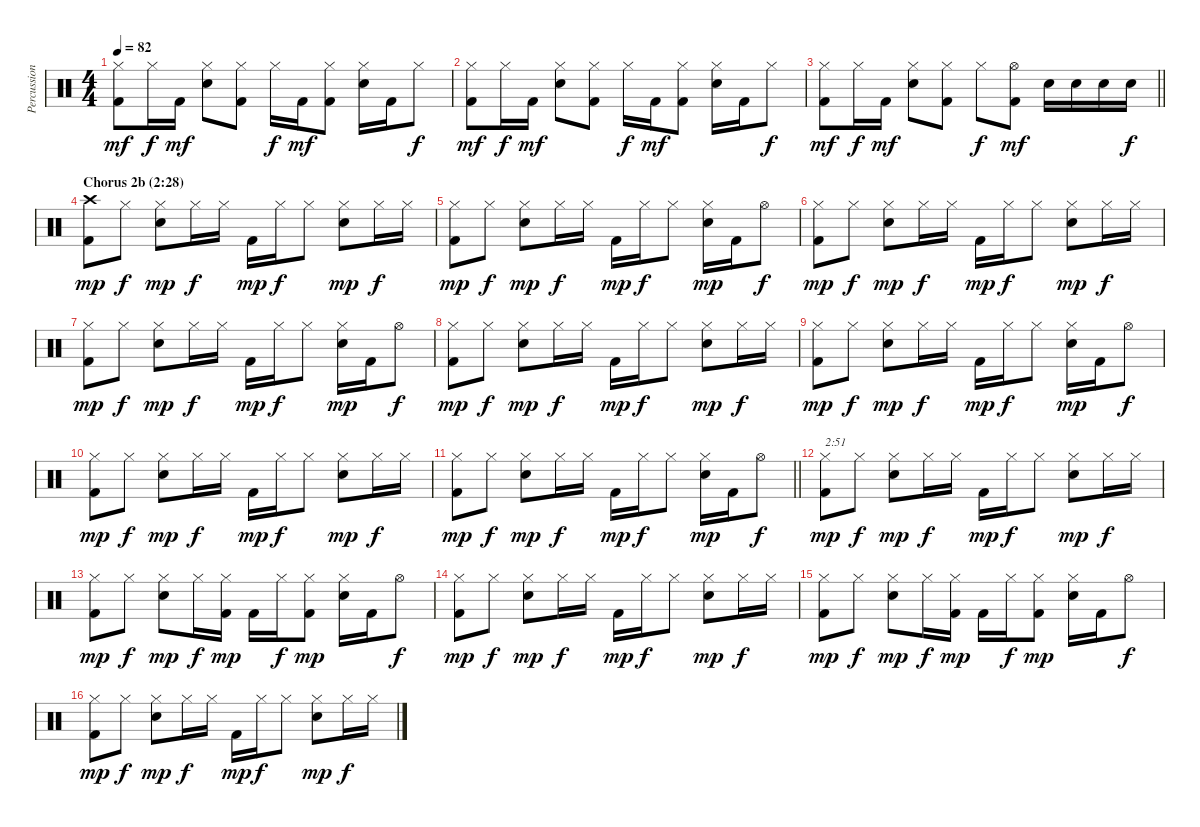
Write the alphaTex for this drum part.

\track ("Percussion" "Percussion") {instrument percussion}
\staff {score}
\articulation defaults
\ts (4 4)
\tempo 82
\clef neutral
\ks c
("Hi-Hat (closed)" "Kick (hit) 2").8{dy mf} "Hi-Hat (closed)".16{dy f} "Kick (hit) 2".16{dy mf} ("Hi-Hat (closed)" "Electric Snare (hit)").8 ("Hi-Hat (closed)" "Kick (hit) 2").8 "Hi-Hat (closed)".16{dy f} "Kick (hit) 2".16{dy mf} ("Hi-Hat (closed)" "Kick (hit) 2").8 ("Hi-Hat (closed)" "Electric Snare (hit)").16 "Kick (hit) 2".16 "Hi-Hat (closed)".8{dy f} |
("Hi-Hat (closed)" "Kick (hit) 2").8{dy mf} "Hi-Hat (closed)".16{dy f} "Kick (hit) 2".16{dy mf} ("Hi-Hat (closed)" "Electric Snare (hit)").8 ("Hi-Hat (closed)" "Kick (hit) 2").8 "Hi-Hat (closed)".16{dy f} "Kick (hit) 2".16{dy mf} ("Hi-Hat (closed)" "Kick (hit) 2").8 ("Hi-Hat (closed)" "Electric Snare (hit)").16 "Kick (hit) 2".16 "Hi-Hat (closed)".8{dy f} |
\barLineRight lightlight
("Hi-Hat (closed)" "Kick (hit) 2").8{dy mf} "Hi-Hat (closed)".16{dy f} "Kick (hit) 2".16{dy mf} ("Hi-Hat (closed)" "Electric Snare (hit)").8 ("Hi-Hat (closed)" "Kick (hit) 2").8 "Hi-Hat (closed)".8{dy f} ("Hi-Hat (open)" "Kick (hit) 2").8{dy mf} "Electric Snare (hit)".16 "Electric Snare (hit)".16 "Snare (hit) 2".16 "Snare (hit) 2".16{dy f} |
\section ("" "Chorus 2b (2:28)")
("Crash high (hit)" "Kick (hit) 2").8{dy mp} "Hi-Hat (closed)".8{dy f} ("Hi-Hat (closed)" "Electric Snare (hit)").8{dy mp} "Hi-Hat (closed)".16{dy f} "Hi-Hat (closed)".16 "Kick (hit) 2".16{dy mp} "Hi-Hat (closed)".16{dy f} "Hi-Hat (closed)".8 ("Hi-Hat (closed)" "Electric Snare (hit)").8{dy mp} "Hi-Hat (closed)".16{dy f} "Hi-Hat (closed)".16 |
("Hi-Hat (closed)" "Kick (hit) 2").8{dy mp} "Hi-Hat (closed)".8{dy f} ("Hi-Hat (closed)" "Electric Snare (hit)").8{dy mp} "Hi-Hat (closed)".16{dy f} "Hi-Hat (closed)".16 "Kick (hit) 2".16{dy mp} "Hi-Hat (closed)".16{dy f} "Hi-Hat (closed)".8 ("Hi-Hat (closed)" "Electric Snare (hit)").16{dy mp} "Kick (hit) 2".16 "Hi-Hat (open)".8{dy f} |
("Hi-Hat (closed)" "Kick (hit) 2").8{dy mp} "Hi-Hat (closed)".8{dy f} ("Hi-Hat (closed)" "Electric Snare (hit)").8{dy mp} "Hi-Hat (closed)".16{dy f} "Hi-Hat (closed)".16 "Kick (hit) 2".16{dy mp} "Hi-Hat (closed)".16{dy f} "Hi-Hat (closed)".8 ("Hi-Hat (closed)" "Electric Snare (hit)").8{dy mp} "Hi-Hat (closed)".16{dy f} "Hi-Hat (closed)".16 |
("Hi-Hat (closed)" "Kick (hit) 2").8{dy mp} "Hi-Hat (closed)".8{dy f} ("Hi-Hat (closed)" "Electric Snare (hit)").8{dy mp} "Hi-Hat (closed)".16{dy f} "Hi-Hat (closed)".16 "Kick (hit) 2".16{dy mp} "Hi-Hat (closed)".16{dy f} "Hi-Hat (closed)".8 ("Hi-Hat (closed)" "Electric Snare (hit)").16{dy mp} "Kick (hit) 2".16 "Hi-Hat (open)".8{dy f} |
("Hi-Hat (closed)" "Kick (hit) 2").8{dy mp} "Hi-Hat (closed)".8{dy f} ("Hi-Hat (closed)" "Electric Snare (hit)").8{dy mp} "Hi-Hat (closed)".16{dy f} "Hi-Hat (closed)".16 "Kick (hit) 2".16{dy mp} "Hi-Hat (closed)".16{dy f} "Hi-Hat (closed)".8 ("Hi-Hat (closed)" "Electric Snare (hit)").8{dy mp} "Hi-Hat (closed)".16{dy f} "Hi-Hat (closed)".16 |
("Hi-Hat (closed)" "Kick (hit) 2").8{dy mp} "Hi-Hat (closed)".8{dy f} ("Hi-Hat (closed)" "Electric Snare (hit)").8{dy mp} "Hi-Hat (closed)".16{dy f} "Hi-Hat (closed)".16 "Kick (hit) 2".16{dy mp} "Hi-Hat (closed)".16{dy f} "Hi-Hat (closed)".8 ("Hi-Hat (closed)" "Electric Snare (hit)").16{dy mp} "Kick (hit) 2".16 "Hi-Hat (open)".8{dy f} |
("Hi-Hat (closed)" "Kick (hit) 2").8{dy mp} "Hi-Hat (closed)".8{dy f} ("Hi-Hat (closed)" "Electric Snare (hit)").8{dy mp} "Hi-Hat (closed)".16{dy f} "Hi-Hat (closed)".16 "Kick (hit) 2".16{dy mp} "Hi-Hat (closed)".16{dy f} "Hi-Hat (closed)".8 ("Hi-Hat (closed)" "Electric Snare (hit)").8{dy mp} "Hi-Hat (closed)".16{dy f} "Hi-Hat (closed)".16 |
\barLineRight lightlight
("Hi-Hat (closed)" "Kick (hit) 2").8{dy mp} "Hi-Hat (closed)".8{dy f} ("Hi-Hat (closed)" "Electric Snare (hit)").8{dy mp} "Hi-Hat (closed)".16{dy f} "Hi-Hat (closed)".16 "Kick (hit) 2".16{dy mp} "Hi-Hat (closed)".16{dy f} "Hi-Hat (closed)".8 ("Hi-Hat (closed)" "Electric Snare (hit)").16{dy mp} "Kick (hit) 2".16 "Hi-Hat (open)".8{dy f} |
("Hi-Hat (closed)" "Kick (hit) 2").8{txt "2:51" dy mp} "Hi-Hat (closed)".8{dy f} ("Hi-Hat (closed)" "Electric Snare (hit)").8{dy mp} "Hi-Hat (closed)".16{dy f} "Hi-Hat (closed)".16 "Kick (hit) 2".16{dy mp} "Hi-Hat (closed)".16{dy f} "Hi-Hat (closed)".8 ("Hi-Hat (closed)" "Electric Snare (hit)").8{dy mp} "Hi-Hat (closed)".16{dy f} "Hi-Hat (closed)".16 |
("Hi-Hat (closed)" "Kick (hit) 2").8{dy mp} "Hi-Hat (closed)".8{dy f} ("Hi-Hat (closed)" "Electric Snare (hit)").8{dy mp} "Hi-Hat (closed)".16{dy f} ("Hi-Hat (closed)" "Kick (hit) 2").16{dy mp} "Kick (hit) 2".16 "Hi-Hat (closed)".16{dy f} ("Hi-Hat (closed)" "Kick (hit) 2").8{dy mp} ("Hi-Hat (closed)" "Electric Snare (hit)").16 "Kick (hit) 2".16 "Hi-Hat (open)".8{dy f} |
("Hi-Hat (closed)" "Kick (hit) 2").8{dy mp} "Hi-Hat (closed)".8{dy f} ("Hi-Hat (closed)" "Electric Snare (hit)").8{dy mp} "Hi-Hat (closed)".16{dy f} "Hi-Hat (closed)".16 "Kick (hit) 2".16{dy mp} "Hi-Hat (closed)".16{dy f} "Hi-Hat (closed)".8 ("Hi-Hat (closed)" "Electric Snare (hit)").8{dy mp} "Hi-Hat (closed)".16{dy f} "Hi-Hat (closed)".16 |
("Hi-Hat (closed)" "Kick (hit) 2").8{dy mp} "Hi-Hat (closed)".8{dy f} ("Hi-Hat (closed)" "Electric Snare (hit)").8{dy mp} "Hi-Hat (closed)".16{dy f} ("Hi-Hat (closed)" "Kick (hit) 2").16{dy mp} "Kick (hit) 2".16 "Hi-Hat (closed)".16{dy f} ("Hi-Hat (closed)" "Kick (hit) 2").8{dy mp} ("Hi-Hat (closed)" "Electric Snare (hit)").16 "Kick (hit) 2".16 "Hi-Hat (open)".8{dy f} |
("Hi-Hat (closed)" "Kick (hit) 2").8{dy mp} "Hi-Hat (closed)".8{dy f} ("Hi-Hat (closed)" "Electric Snare (hit)").8{dy mp} "Hi-Hat (closed)".16{dy f} "Hi-Hat (closed)".16 "Kick (hit) 2".16{dy mp} "Hi-Hat (closed)".16{dy f} "Hi-Hat (closed)".8 ("Hi-Hat (closed)" "Electric Snare (hit)").8{dy mp} "Hi-Hat (closed)".16{dy f} "Hi-Hat (closed)".16
